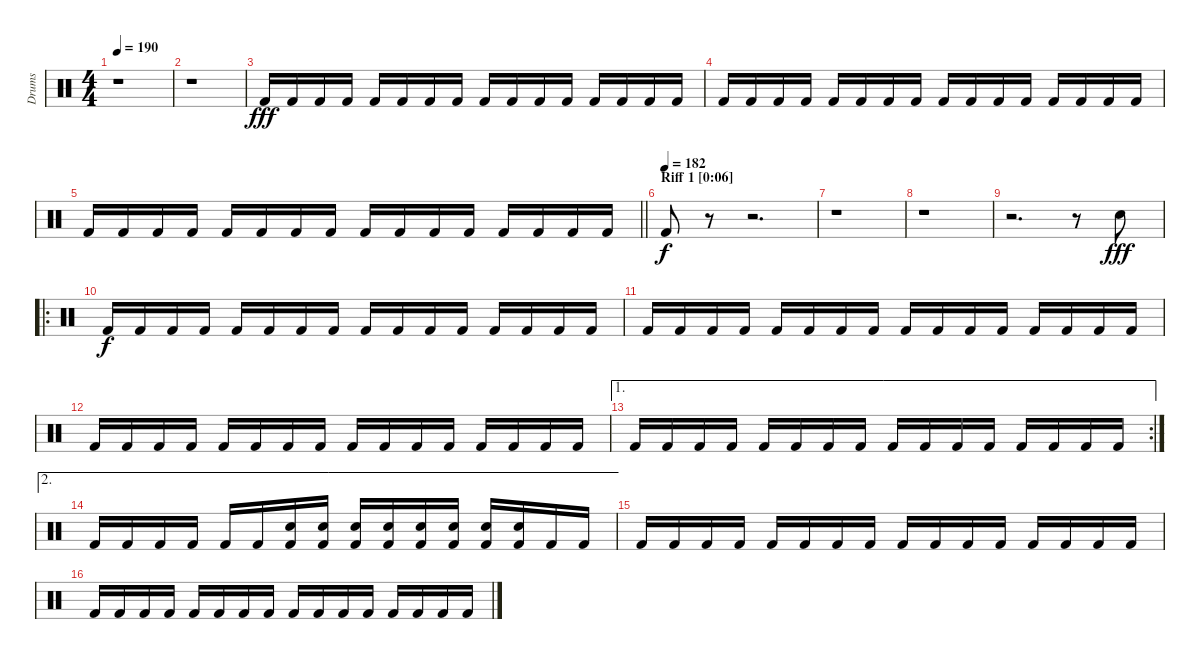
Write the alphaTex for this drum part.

\track ("Drums" "Drums") {instrument percussion}
\staff {score}
\articulation defaults
\ts (4 4)
\tempo 190
\clef neutral
\ks c
r.1{dy fff} |
r.1 |
"Kick (hit) 2".16 "Kick (hit) 2".16 "Kick (hit) 2".16 "Kick (hit) 2".16 "Kick (hit) 2".16 "Kick (hit) 2".16 "Kick (hit) 2".16 "Kick (hit) 2".16 "Kick (hit) 2".16 "Kick (hit) 2".16 "Kick (hit) 2".16 "Kick (hit) 2".16 "Kick (hit) 2".16 "Kick (hit) 2".16 "Kick (hit) 2".16 "Kick (hit) 2".16 |
"Kick (hit) 2".16 "Kick (hit) 2".16 "Kick (hit) 2".16 "Kick (hit) 2".16 "Kick (hit) 2".16 "Kick (hit) 2".16 "Kick (hit) 2".16 "Kick (hit) 2".16 "Kick (hit) 2".16 "Kick (hit) 2".16 "Kick (hit) 2".16 "Kick (hit) 2".16 "Kick (hit) 2".16 "Kick (hit) 2".16 "Kick (hit) 2".16 "Kick (hit) 2".16 |
\barLineRight lightlight "Kick (hit) 2".16 "Kick (hit) 2".16 "Kick (hit) 2".16 "Kick (hit) 2".16 "Kick (hit) 2".16 "Kick (hit) 2".16 "Kick (hit) 2".16 "Kick (hit) 2".16 "Kick (hit) 2".16 "Kick (hit) 2".16 "Kick (hit) 2".16 "Kick (hit) 2".16 "Kick (hit) 2".16 "Kick (hit) 2".16 "Kick (hit) 2".16 "Kick (hit) 2".16
|
\section ("" "Riff 1 [0:06]")
\tempo (182)
"Kick (hit) 2".8{dy f} r.8 r.2{d} |
r.1 |
r.1 |
r.2{d} r.8 "Electric Snare (hit)".8{dy fff} |
\ro "Kick (hit) 2".16{dy f} "Kick (hit) 2".16 "Kick (hit) 2".16 "Kick (hit) 2".16 "Kick (hit) 2".16 "Kick (hit) 2".16 "Kick (hit) 2".16 "Kick (hit) 2".16 "Kick (hit) 2".16 "Kick (hit) 2".16 "Kick (hit) 2".16 "Kick (hit) 2".16 "Kick (hit) 2".16 "Kick (hit) 2".16 "Kick (hit) 2".16 "Kick (hit) 2".16
|
"Kick (hit) 2".16 "Kick (hit) 2".16 "Kick (hit) 2".16 "Kick (hit) 2".16 "Kick (hit) 2".16 "Kick (hit) 2".16 "Kick (hit) 2".16 "Kick (hit) 2".16 "Kick (hit) 2".16 "Kick (hit) 2".16 "Kick (hit) 2".16 "Kick (hit) 2".16 "Kick (hit) 2".16 "Kick (hit) 2".16 "Kick (hit) 2".16 "Kick (hit) 2".16 |
"Kick (hit) 2".16 "Kick (hit) 2".16 "Kick (hit) 2".16 "Kick (hit) 2".16 "Kick (hit) 2".16 "Kick (hit) 2".16 "Kick (hit) 2".16 "Kick (hit) 2".16 "Kick (hit) 2".16 "Kick (hit) 2".16 "Kick (hit) 2".16 "Kick (hit) 2".16 "Kick (hit) 2".16 "Kick (hit) 2".16 "Kick (hit) 2".16 "Kick (hit) 2".16 |
\ae 1
\rc 2 "Kick (hit) 2".16 "Kick (hit) 2".16 "Kick (hit) 2".16 "Kick (hit) 2".16 "Kick (hit) 2".16 "Kick (hit) 2".16 "Kick (hit) 2".16 "Kick (hit) 2".16 "Kick (hit) 2".16 "Kick (hit) 2".16 "Kick (hit) 2".16 "Kick (hit) 2".16 "Kick (hit) 2".16 "Kick (hit) 2".16 "Kick (hit) 2".16 "Kick (hit) 2".16
|
\ae 2 "Kick (hit) 2".16 "Kick (hit) 2".16 "Kick (hit) 2".16 "Kick (hit) 2".16 "Kick (hit) 2".16 "Kick (hit) 2".16
("Electric Snare (hit)" "Kick (hit) 2").16 ("Electric Snare (hit)" "Kick (hit) 2").16 ("Electric Snare (hit)" "Kick (hit) 2").16 ("Electric Snare (hit)" "Kick (hit) 2").16 ("Electric Snare (hit)" "Kick (hit) 2").16 ("Electric Snare (hit)" "Kick (hit) 2").16 ("Electric Snare (hit)" "Kick (hit) 2").16 ("Electric Snare (hit)" "Kick (hit) 2").16 "Kick (hit) 2".16 "Kick (hit) 2".16 |
"Kick (hit) 2".16 "Kick (hit) 2".16 "Kick (hit) 2".16 "Kick (hit) 2".16 "Kick (hit) 2".16 "Kick (hit) 2".16 "Kick (hit) 2".16 "Kick (hit) 2".16 "Kick (hit) 2".16 "Kick (hit) 2".16 "Kick (hit) 2".16 "Kick (hit) 2".16 "Kick (hit) 2".16 "Kick (hit) 2".16 "Kick (hit) 2".16 "Kick (hit) 2".16 |
"Kick (hit) 2".16 "Kick (hit) 2".16 "Kick (hit) 2".16 "Kick (hit) 2".16 "Kick (hit) 2".16 "Kick (hit) 2".16 "Kick (hit) 2".16 "Kick (hit) 2".16 "Kick (hit) 2".16 "Kick (hit) 2".16 "Kick (hit) 2".16 "Kick (hit) 2".16 "Kick (hit) 2".16 "Kick (hit) 2".16 "Kick (hit) 2".16 "Kick (hit) 2".16
